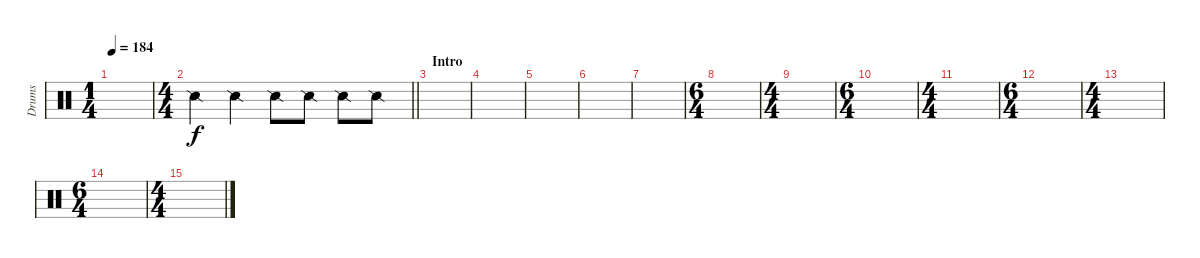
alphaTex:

\track ("Drums" "Drums") {instrument percussion}
\staff {score}
\articulation defaults
\ts (1 4)
\tempo 184
\tempo 134
\tempo 184
\clef neutral
\ks c
|
\ts (4 4)
\barLineRight lightlight "Snare (side stick) 2".4 "Snare (side stick) 2".4 "Snare (side stick) 2".8 "Snare (side stick) 2".8 "Snare (side stick) 2".8 "Snare (side stick) 2".8
|
\section ("" "Intro")
|
|
|
|
|
\ts (6 4)
|
\ts (4 4)
|
\ts (6 4)
|
\ts (4 4)
|
\ts (6 4)
|
\ts (4 4)
|
\ts (6 4)
|
\ts (4 4)
